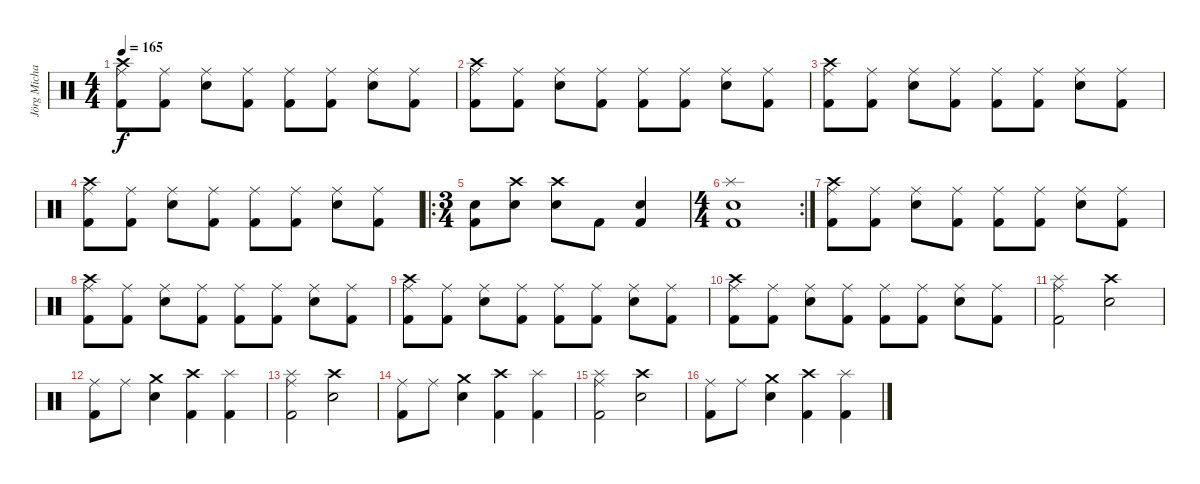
\track ("Jörg Michael" "Jörg Micha") {instrument percussion}
\staff {score}
\articulation defaults
\ts (4 4)
\tempo 165
\clef neutral
\ks c
("Kick (hit) 2" "Ride (middle)" "Crash high (hit)").8{dy f} ("Kick (hit) 2" "Ride (middle)").8 ("Snare (hit) 2" "Ride (middle)").8 ("Kick (hit) 2" "Ride (middle)").8 ("Kick (hit) 2" "Ride (middle)").8 ("Kick (hit) 2" "Ride (middle)").8 ("Snare (hit) 2" "Ride (middle)").8 ("Kick (hit) 2" "Ride (middle)").8 |
("Kick (hit) 2" "Ride (middle)" "Crash high (hit)").8 ("Kick (hit) 2" "Ride (middle)").8 ("Snare (hit) 2" "Ride (middle)").8 ("Kick (hit) 2" "Ride (middle)").8 ("Kick (hit) 2" "Ride (middle)").8 ("Kick (hit) 2" "Ride (middle)").8 ("Snare (hit) 2" "Ride (middle)").8 ("Kick (hit) 2" "Ride (middle)").8 |
("Kick (hit) 2" "Ride (middle)" "Crash high (hit)").8 ("Kick (hit) 2" "Ride (middle)").8 ("Snare (hit) 2" "Ride (middle)").8 ("Kick (hit) 2" "Ride (middle)").8 ("Kick (hit) 2" "Ride (middle)").8 ("Kick (hit) 2" "Ride (middle)").8 ("Snare (hit) 2" "Ride (middle)").8 ("Kick (hit) 2" "Ride (middle)").8 |
("Kick (hit) 2" "Ride (middle)" "Crash high (hit)").8 ("Kick (hit) 2" "Ride (middle)").8 ("Snare (hit) 2" "Ride (middle)").8 ("Kick (hit) 2" "Ride (middle)").8 ("Kick (hit) 2" "Ride (middle)").8 ("Kick (hit) 2" "Ride (middle)").8 ("Snare (hit) 2" "Ride (middle)").8 ("Kick (hit) 2" "Ride (middle)").8 |
\ro
\ts (3 4)
("Snare (hit) 2" "Kick (hit) 2").8 ("Electric Snare (hit)" "Crash high (hit)").8 ("Crash high (hit)" "Electric Snare (hit)").8 "Kick (hit) 2".8 ("Snare (hit) 2" "Kick (hit) 2").4 |
\rc 2
\ts (4 4)
("Kick (hit) 2" "Snare (hit) 2" "Splash (hit)").1 |
("Kick (hit) 2" "Ride (middle)" "Crash high (hit)").8 ("Kick (hit) 2" "Ride (middle)").8 ("Snare (hit) 2" "Ride (middle)").8 ("Kick (hit) 2" "Ride (middle)").8 ("Kick (hit) 2" "Ride (middle)").8 ("Kick (hit) 2" "Ride (middle)").8 ("Snare (hit) 2" "Ride (middle)").8 ("Kick (hit) 2" "Ride (middle)").8 |
("Kick (hit) 2" "Ride (middle)" "Crash high (hit)").8 ("Kick (hit) 2" "Ride (middle)").8 ("Snare (hit) 2" "Ride (middle)").8 ("Kick (hit) 2" "Ride (middle)").8 ("Kick (hit) 2" "Ride (middle)").8 ("Kick (hit) 2" "Ride (middle)").8 ("Snare (hit) 2" "Ride (middle)").8 ("Kick (hit) 2" "Ride (middle)").8 |
("Kick (hit) 2" "Ride (middle)" "Crash high (hit)").8 ("Kick (hit) 2" "Ride (middle)").8 ("Snare (hit) 2" "Ride (middle)").8 ("Kick (hit) 2" "Ride (middle)").8 ("Kick (hit) 2" "Ride (middle)").8 ("Kick (hit) 2" "Ride (middle)").8 ("Snare (hit) 2" "Ride (middle)").8 ("Kick (hit) 2" "Ride (middle)").8 |
("Kick (hit) 2" "Ride (middle)" "Crash high (hit)").8 ("Kick (hit) 2" "Ride (middle)").8 ("Snare (hit) 2" "Ride (middle)").8 ("Kick (hit) 2" "Ride (middle)").8 ("Kick (hit) 2" "Ride (middle)").8 ("Kick (hit) 2" "Ride (middle)").8 ("Snare (hit) 2" "Ride (middle)").8 ("Kick (hit) 2" "Ride (middle)").8 |
("Kick (hit) 2" "Ride (middle)" "Splash (hit)").2 ("Crash high (hit)" "Snare (hit) 2").2 |
("Kick (hit) 2" "Ride (middle)").8 "Ride (middle)".8 ("Snare (hit) 2" "Crash medium (hit)").4 ("Kick (hit) 2" "Crash high (hit)").4 ("Kick (hit) 2" "Splash (hit)").4 |
("Kick (hit) 2" "Ride (middle)" "Splash (hit)").2 ("Crash high (hit)" "Snare (hit) 2").2 |
("Kick (hit) 2" "Ride (middle)").8 "Ride (middle)".8 ("Snare (hit) 2" "Crash medium (hit)").4 ("Kick (hit) 2" "Crash high (hit)").4 ("Kick (hit) 2" "Splash (hit)").4 |
("Kick (hit) 2" "Ride (middle)" "Splash (hit)").2 ("Crash high (hit)" "Snare (hit) 2").2 |
("Kick (hit) 2" "Ride (middle)").8 "Ride (middle)".8 ("Snare (hit) 2" "Crash medium (hit)").4 ("Kick (hit) 2" "Crash high (hit)").4 ("Kick (hit) 2" "Splash (hit)").4
